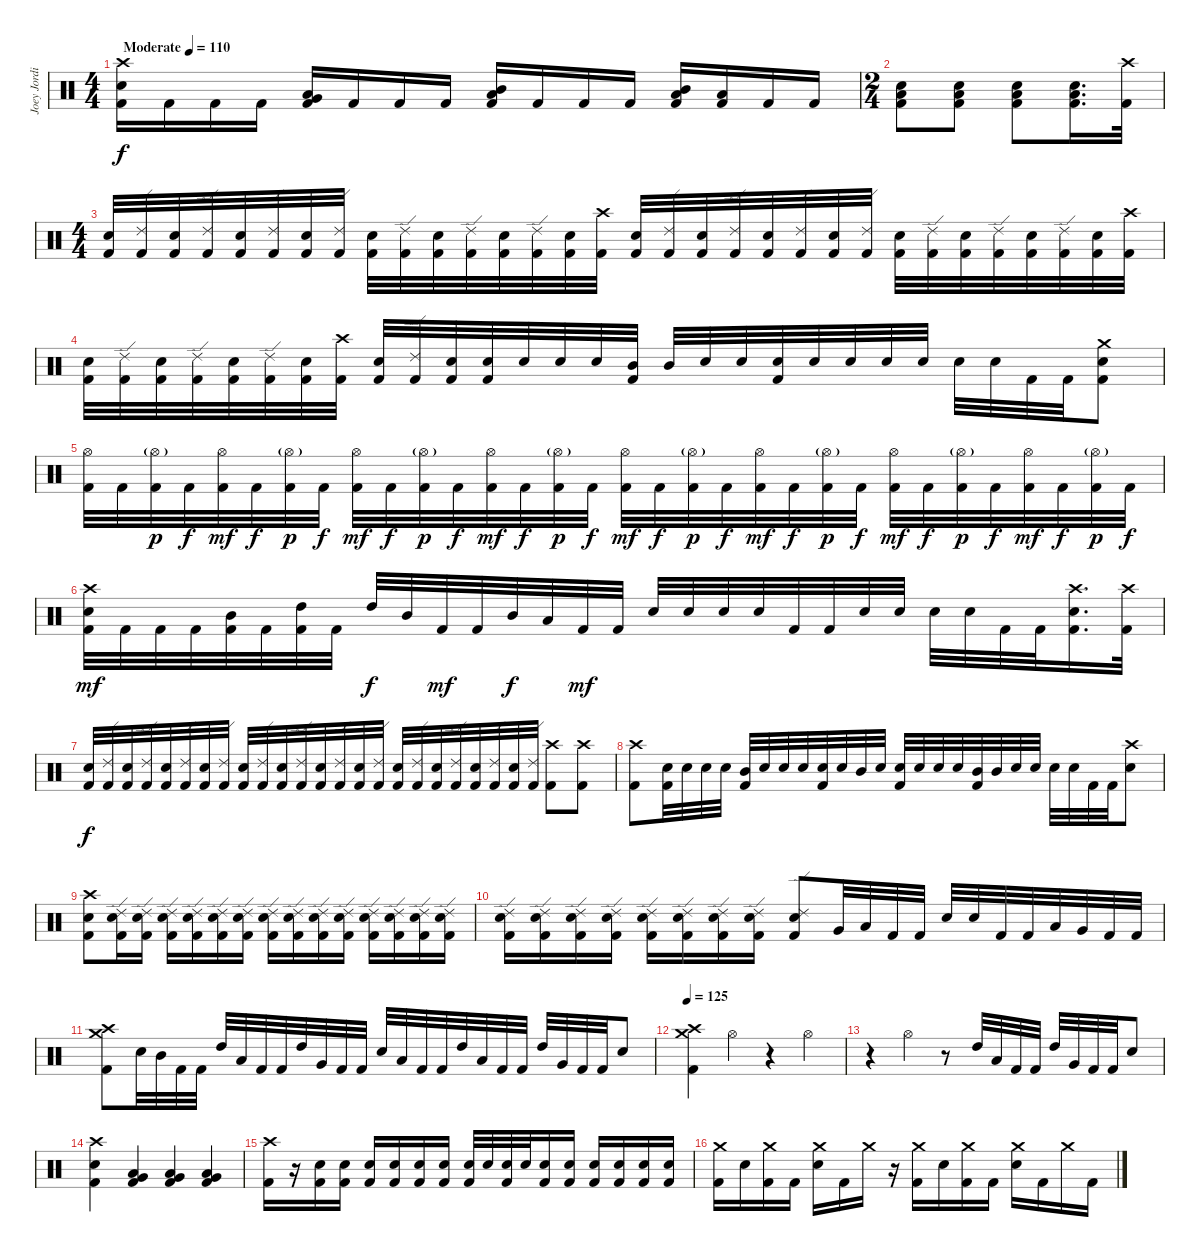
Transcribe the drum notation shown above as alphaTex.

\track ("Joey Jordison" "Joey Jordi") {instrument percussion}
\staff {score}
\articulation defaults
\ts (4 4)
\tempo (110 "Moderate")
\clef neutral
\ks c
("Crash high (hit)" "Snare (hit) 2" "Kick (hit) 2").16{dy f} "Kick (hit) 2".16 "Kick (hit) 2".16 "Kick (hit) 2".16 ("Very Low Tom (hit)" "Low Floor Tom (hit)" "Kick (hit) 2").16 "Kick (hit) 2".16 "Kick (hit) 2".16 "Kick (hit) 2".16 ("Mid Tom (hit)" "Low Tom (hit)" "Kick (hit) 2").16 "Kick (hit) 2".16 "Kick (hit) 2".16 "Kick (hit) 2".16 ("Mid Tom (hit)" "Low Tom (hit)" "Kick (hit) 2").16 ("Low Tom (hit)" "Kick (hit) 2").16 "Kick (hit) 2".16 "Kick (hit) 2".16 |
\ts (2 4)
("Low Tom (hit)" "Snare (hit) 2" "Kick (hit) 2").8 ("Low Tom (hit)" "Snare (hit) 2" "Kick (hit) 2").8 ("Low Tom (hit)" "Snare (hit) 2" "Kick (hit) 2").8 ("Low Tom (hit)" "Snare (hit) 2" "Kick (hit) 2").16{d} ("Crash high (hit)" "Kick (hit) 2").32 |
\ts (4 4)
("Snare (hit) 2" "Kick (hit) 2").32 ("Ride (edge) 2" "Kick (hit) 2").32 ("Snare (hit) 2" "Kick (hit) 2").32 ("Ride (edge) 2" "Kick (hit) 2").32 ("Snare (hit) 2" "Kick (hit) 2").32 ("Ride (edge) 2" "Kick (hit) 2").32 ("Snare (hit) 2" "Kick (hit) 2").32 ("Ride (edge) 2" "Kick (hit) 2").32 ("Snare (hit) 2" "Kick (hit) 2").32 ("Ride (edge) 2" "Kick (hit) 2").32 ("Snare (hit) 2" "Kick (hit) 2").32 ("Ride (edge) 2" "Kick (hit) 2").32 ("Snare (hit) 2" "Kick (hit) 2").32 ("Ride (edge) 2" "Kick (hit) 2").32 ("Snare (hit) 2" "Kick (hit) 2").32 ("Crash high (hit)" "Kick (hit) 2").32 ("Snare (hit) 2" "Kick (hit) 2").32 ("Ride (edge) 2" "Kick (hit) 2").32 ("Snare (hit) 2" "Kick (hit) 2").32 ("Ride (edge) 2" "Kick (hit) 2").32 ("Snare (hit) 2" "Kick (hit) 2").32 ("Ride (edge) 2" "Kick (hit) 2").32 ("Snare (hit) 2" "Kick (hit) 2").32 ("Ride (edge) 2" "Kick (hit) 2").32 ("Snare (hit) 2" "Kick (hit) 2").32 ("Ride (edge) 2" "Kick (hit) 2").32 ("Snare (hit) 2" "Kick (hit) 2").32 ("Ride (edge) 2" "Kick (hit) 2").32 ("Snare (hit) 2" "Kick (hit) 2").32 ("Ride (edge) 2" "Kick (hit) 2").32 ("Snare (hit) 2" "Kick (hit) 2").32 ("Crash high (hit)" "Kick (hit) 2").32 |
("Snare (hit) 2" "Kick (hit) 2").32 ("Ride (edge) 2" "Kick (hit) 2").32 ("Snare (hit) 2" "Kick (hit) 2").32 ("Ride (edge) 2" "Kick (hit) 2").32 ("Snare (hit) 2" "Kick (hit) 2").32 ("Ride (edge) 2" "Kick (hit) 2").32 ("Snare (hit) 2" "Kick (hit) 2").32 ("Crash high (hit)" "Kick (hit) 2").32 ("Snare (hit) 2" "Kick (hit) 2").32 ("Ride (edge) 2" "Kick (hit) 2").32 ("Snare (hit) 2" "Kick (hit) 2").32 ("Snare (hit) 2" "Kick (hit) 2").32 "Snare (hit) 2".32 "Snare (hit) 2".32 "Snare (hit) 2".32 ("Mid Tom (hit)" "Kick (hit) 2").32 "Mid Tom (hit)".32 "Snare (hit) 2".32 "Snare (hit) 2".32 ("Snare (hit) 2" "Kick (hit) 2").32 "Snare (hit) 2".32 "Snare (hit) 2".32 "Snare (hit) 2".32 "Snare (hit) 2".32 "Snare (hit) 2".32 "Snare (hit) 2".32 "Kick (hit) 2".32 "Kick (hit) 2".32 ("Crash medium (hit)" "Snare (hit) 2" "Kick (hit) 2").8 |
("Hi-Hat (open)" "Kick (hit) 2").32 "Kick (hit) 2".32 ("Hi-Hat (open)"{g} "Kick (hit) 2").32{dy p} "Kick (hit) 2".32{dy f} ("Hi-Hat (open)" "Kick (hit) 2").32{dy mf} "Kick (hit) 2".32{dy f} ("Hi-Hat (open)"{g} "Kick (hit) 2").32{dy p} "Kick (hit) 2".32{dy f} ("Hi-Hat (open)" "Kick (hit) 2").32{dy mf} "Kick (hit) 2".32{dy f} ("Hi-Hat (open)"{g} "Kick (hit) 2").32{dy p} "Kick (hit) 2".32{dy f} ("Hi-Hat (open)" "Kick (hit) 2").32{dy mf} "Kick (hit) 2".32{dy f} ("Hi-Hat (open)"{g} "Kick (hit) 2").32{dy p} "Kick (hit) 2".32{dy f} ("Hi-Hat (open)" "Kick (hit) 2").32{dy mf} "Kick (hit) 2".32{dy f} ("Hi-Hat (open)"{g} "Kick (hit) 2").32{dy p} "Kick (hit) 2".32{dy f} ("Hi-Hat (open)" "Kick (hit) 2").32{dy mf} "Kick (hit) 2".32{dy f} ("Hi-Hat (open)"{g} "Kick (hit) 2").32{dy p} "Kick (hit) 2".32{dy f} ("Hi-Hat (open)" "Kick (hit) 2").32{dy mf} "Kick (hit) 2".32{dy f} ("Hi-Hat (open)"{g} "Kick (hit) 2").32{dy p} "Kick (hit) 2".32{dy f} ("Hi-Hat (open)" "Kick (hit) 2").32{dy mf} "Kick (hit) 2".32{dy f} ("Hi-Hat (open)"{g} "Kick (hit) 2").32{dy p} "Kick (hit) 2".32{dy f} |
("Crash high (hit)" "Snare (hit) 2" "Kick (hit) 2").32{dy mf} "Kick (hit) 2".32 "Kick (hit) 2".32 "Kick (hit) 2".32 ("Mid Tom (hit)" "Kick (hit) 2").32 "Kick (hit) 2".32 ("High Tom (hit)" "Kick (hit) 2").32 "Kick (hit) 2".32 "High Tom (hit)".32{dy f} "Mid Tom (hit)".32 "Kick (hit) 2".32{dy mf} "Kick (hit) 2".32 "Mid Tom (hit)".32{dy f} "Low Tom (hit)".32 "Kick (hit) 2".32{dy mf} "Kick (hit) 2".32 "Snare (hit) 2".32 "Snare (hit) 2".32 "Snare (hit) 2".32 "Snare (hit) 2".32 "Kick (hit) 2".32 "Kick (hit) 2".32 "Snare (hit) 2".32 "Snare (hit) 2".32 "Snare (hit) 2".32 "Snare (hit) 2".32 "Kick (hit) 2".32 "Kick (hit) 2".32 ("Crash high (hit)" "Snare (hit) 2" "Kick (hit) 2").16{d} ("Crash high (hit)" "Kick (hit) 2").32 |
("Snare (hit) 2" "Kick (hit) 2").32{dy f} ("Ride (edge) 2" "Kick (hit) 2").32 ("Snare (hit) 2" "Kick (hit) 2").32 ("Ride (edge) 2" "Kick (hit) 2").32 ("Snare (hit) 2" "Kick (hit) 2").32 ("Ride (edge) 2" "Kick (hit) 2").32 ("Snare (hit) 2" "Kick (hit) 2").32 ("Ride (edge) 2" "Kick (hit) 2").32 ("Snare (hit) 2" "Kick (hit) 2").32 ("Ride (edge) 2" "Kick (hit) 2").32 ("Snare (hit) 2" "Kick (hit) 2").32 ("Ride (edge) 2" "Kick (hit) 2").32 ("Snare (hit) 2" "Kick (hit) 2").32 ("Ride (edge) 2" "Kick (hit) 2").32 ("Snare (hit) 2" "Kick (hit) 2").32 ("Ride (edge) 2" "Kick (hit) 2").32 ("Snare (hit) 2" "Kick (hit) 2").32 ("Ride (edge) 2" "Kick (hit) 2").32 ("Snare (hit) 2" "Kick (hit) 2").32 ("Ride (edge) 2" "Kick (hit) 2").32 ("Snare (hit) 2" "Kick (hit) 2").32 ("Ride (edge) 2" "Kick (hit) 2").32 ("Snare (hit) 2" "Kick (hit) 2").32 ("Ride (edge) 2" "Kick (hit) 2").32 ("Crash high (hit)" "Kick (hit) 2").8 ("Crash high (hit)" "Kick (hit) 2").8 |
("Crash high (hit)" "Kick (hit) 2").8 ("Snare (hit) 2" "Kick (hit) 2").32 "Snare (hit) 2".32 "Snare (hit) 2".32 "Snare (hit) 2".32 ("Mid Tom (hit)" "Kick (hit) 2").32 "Snare (hit) 2".32 "Snare (hit) 2".32 "Snare (hit) 2".32 ("Snare (hit) 2" "Kick (hit) 2").32 "Snare (hit) 2".32 "Mid Tom (hit)".32 "Snare (hit) 2".32 ("Snare (hit) 2" "Kick (hit) 2").32 "Snare (hit) 2".32 "Snare (hit) 2".32 "Snare (hit) 2".32 ("Mid Tom (hit)" "Kick (hit) 2").32 "Mid Tom (hit)".32 "Snare (hit) 2".32 "Snare (hit) 2".32 "Snare (hit) 2".32 "Snare (hit) 2".32 "Kick (hit) 2".32 "Kick (hit) 2".32 ("Crash high (hit)" "Snare (hit) 2").8 |
("Crash high (hit)" "Snare (hit) 2" "Kick (hit) 2").8 ("Ride (edge) 2" "Snare (hit) 2" "Kick (hit) 2").16 ("Ride (edge) 2" "Snare (hit) 2" "Kick (hit) 2").16 ("Ride (edge) 2" "Snare (hit) 2" "Kick (hit) 2").16 ("Ride (edge) 2" "Snare (hit) 2" "Kick (hit) 2").16 ("Ride (edge) 2" "Snare (hit) 2" "Kick (hit) 2").16 ("Ride (edge) 2" "Snare (hit) 2" "Kick (hit) 2").16 ("Ride (edge) 2" "Snare (hit) 2" "Kick (hit) 2").16 ("Ride (edge) 2" "Snare (hit) 2" "Kick (hit) 2").16 ("Ride (edge) 2" "Snare (hit) 2" "Kick (hit) 2").16 ("Ride (edge) 2" "Snare (hit) 2" "Kick (hit) 2").16 ("Ride (edge) 2" "Snare (hit) 2" "Kick (hit) 2").16 ("Ride (edge) 2" "Snare (hit) 2" "Kick (hit) 2").16 ("Ride (edge) 2" "Snare (hit) 2" "Kick (hit) 2").16 ("Ride (edge) 2" "Snare (hit) 2" "Kick (hit) 2").16 |
("Ride (edge) 2" "Snare (hit) 2" "Kick (hit) 2").16 ("Ride (edge) 2" "Snare (hit) 2" "Kick (hit) 2").16 ("Ride (edge) 2" "Snare (hit) 2" "Kick (hit) 2").16 ("Ride (edge) 2" "Snare (hit) 2" "Kick (hit) 2").16 ("Ride (edge) 2" "Snare (hit) 2" "Kick (hit) 2").16 ("Ride (edge) 2" "Snare (hit) 2" "Kick (hit) 2").16 ("Ride (edge) 2" "Snare (hit) 2" "Kick (hit) 2").16 ("Ride (edge) 2" "Snare (hit) 2" "Kick (hit) 2").16 ("Ride (edge) 2" "Snare (hit) 2" "Kick (hit) 2").8 "Very Low Tom (hit)".32 "Low Floor Tom (hit)".32 "Kick (hit) 2".32 "Kick (hit) 2".32 "Snare (hit) 2".32 "Snare (hit) 2".32 "Kick (hit) 2".32 "Kick (hit) 2".32 "Low Tom (hit)".32 "Very Low Tom (hit)".32 "Kick (hit) 2".32 "Kick (hit) 2".32 |
("Crash high (hit)" "Crash medium (hit)" "Kick (hit) 2").8 "Snare (hit) 2".32 "Mid Tom (hit)".32 "Kick (hit) 2".32 "Kick (hit) 2".32 "High Tom (hit)".32 "Low Tom (hit)".32 "Kick (hit) 2".32 "Kick (hit) 2".32 "High Tom (hit)".32 "Very Low Tom (hit)".32 "Kick (hit) 2".32 "Kick (hit) 2".32 "Snare (hit) 2".32 "Low Tom (hit)".32 "Kick (hit) 2".32 "Kick (hit) 2".32 "High Tom (hit)".32 "Low Tom (hit)".32 "Kick (hit) 2".32 "Kick (hit) 2".32 "High Tom (hit)".32 "Very Low Tom (hit)".32 "Kick (hit) 2".32 "Kick (hit) 2".32 "Snare (hit) 2".8 |
\tempo 125
("Crash high (hit)" "Crash medium (hit)" "Kick (hit) 2").4 "Hi-Hat (open)".4 r.4 "Hi-Hat (open)".4 |
r.4 "Hi-Hat (open)".4 r.8 "High Tom (hit)".32 "Low Tom (hit)".32 "Kick (hit) 2".32 "Kick (hit) 2".32 "High Tom (hit)".32 "Very Low Tom (hit)".32 "Kick (hit) 2".32 "Kick (hit) 2".32 "Snare (hit) 2".8 |
("Crash high (hit)" "Snare (hit) 2" "Kick (hit) 2").4 ("Very Low Tom (hit)" "Low Floor Tom (hit)" "Kick (hit) 2").4 ("Very Low Tom (hit)" "Low Floor Tom (hit)" "Kick (hit) 2").4 ("Very Low Tom (hit)" "Low Floor Tom (hit)" "Kick (hit) 2").4 |
("Crash high (hit)" "Kick (hit) 2").16 r.16 ("Snare (hit) 2" "Kick (hit) 2").16 ("Snare (hit) 2" "Kick (hit) 2").16 ("Snare (hit) 2" "Kick (hit) 2").16 ("Snare (hit) 2" "Kick (hit) 2").16 ("Snare (hit) 2" "Kick (hit) 2").16 ("Snare (hit) 2" "Kick (hit) 2").16 ("Snare (hit) 2" "Kick (hit) 2").32 "Snare (hit) 2".32 ("Snare (hit) 2" "Kick (hit) 2").32 "Snare (hit) 2".32 ("Snare (hit) 2" "Kick (hit) 2").16 ("Snare (hit) 2" "Kick (hit) 2").16 ("Snare (hit) 2" "Kick (hit) 2").16 ("Snare (hit) 2" "Kick (hit) 2").16 ("Snare (hit) 2" "Kick (hit) 2").16 ("Snare (hit) 2" "Kick (hit) 2").16 |
("Crash medium (hit)" "Kick (hit) 2").16 "Snare (hit) 2".16 ("Crash medium (hit)" "Kick (hit) 2").16 "Kick (hit) 2".16 ("Crash medium (hit)" "Snare (hit) 2").16 "Kick (hit) 2".16 "Crash medium (hit)".16 r.16 ("Crash medium (hit)" "Kick (hit) 2").16 "Snare (hit) 2".16 ("Crash medium (hit)" "Kick (hit) 2").16 "Kick (hit) 2".16 ("Crash medium (hit)" "Snare (hit) 2").16 "Kick (hit) 2".16 "Crash medium (hit)".16 "Kick (hit) 2".16
